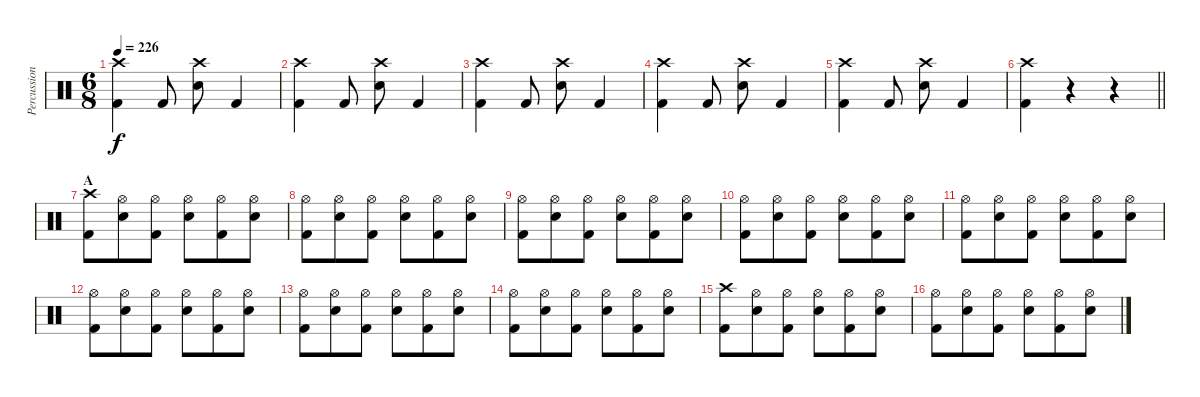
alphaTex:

\track ("Percussion" "Percussion") {instrument percussion}
\staff {score}
\articulation defaults
\ts (6 8)
\tempo 226
\clef neutral
\ks c
("Crash high (hit)" "Kick (hit) 2").4{dy f} "Kick (hit) 2".8 ("Crash high (hit)" "Electric Snare (hit)").8 "Kick (hit) 2".4 |
("Crash high (hit)" "Kick (hit) 2").4 "Kick (hit) 2".8 ("Crash high (hit)" "Electric Snare (hit)").8 "Kick (hit) 2".4 |
("Crash high (hit)" "Kick (hit) 2").4 "Kick (hit) 2".8 ("Crash high (hit)" "Electric Snare (hit)").8 "Kick (hit) 2".4 |
("Crash high (hit)" "Kick (hit) 2").4 "Kick (hit) 2".8 ("Crash high (hit)" "Electric Snare (hit)").8 "Kick (hit) 2".4 |
("Crash high (hit)" "Kick (hit) 2").4 "Kick (hit) 2".8 ("Crash high (hit)" "Electric Snare (hit)").8 "Kick (hit) 2".4 |
\barLineRight lightlight
("Crash high (hit)" "Kick (hit) 2").4 r.4 r.4 |
\section ("" "A")
("Crash high (hit)" "Kick (hit) 2").8 ("Hi-Hat (open)" "Electric Snare (hit)").8 ("Hi-Hat (open)" "Kick (hit) 2").8 ("Hi-Hat (open)" "Electric Snare (hit)").8 ("Hi-Hat (open)" "Kick (hit) 2").8 ("Hi-Hat (open)" "Electric Snare (hit)").8 |
("Hi-Hat (open)" "Kick (hit) 2").8 ("Hi-Hat (open)" "Electric Snare (hit)").8 ("Hi-Hat (open)" "Kick (hit) 2").8 ("Hi-Hat (open)" "Electric Snare (hit)").8 ("Hi-Hat (open)" "Kick (hit) 2").8 ("Hi-Hat (open)" "Electric Snare (hit)").8 |
("Hi-Hat (open)" "Kick (hit) 2").8 ("Hi-Hat (open)" "Electric Snare (hit)").8 ("Hi-Hat (open)" "Kick (hit) 2").8 ("Hi-Hat (open)" "Electric Snare (hit)").8 ("Hi-Hat (open)" "Kick (hit) 2").8 ("Hi-Hat (open)" "Electric Snare (hit)").8 |
("Hi-Hat (open)" "Kick (hit) 2").8 ("Hi-Hat (open)" "Electric Snare (hit)").8 ("Hi-Hat (open)" "Kick (hit) 2").8 ("Hi-Hat (open)" "Electric Snare (hit)").8 ("Hi-Hat (open)" "Kick (hit) 2").8 ("Hi-Hat (open)" "Electric Snare (hit)").8 |
("Hi-Hat (open)" "Kick (hit) 2").8 ("Hi-Hat (open)" "Electric Snare (hit)").8 ("Hi-Hat (open)" "Kick (hit) 2").8 ("Hi-Hat (open)" "Electric Snare (hit)").8 ("Hi-Hat (open)" "Kick (hit) 2").8 ("Hi-Hat (open)" "Electric Snare (hit)").8 |
("Hi-Hat (open)" "Kick (hit) 2").8 ("Hi-Hat (open)" "Electric Snare (hit)").8 ("Hi-Hat (open)" "Kick (hit) 2").8 ("Hi-Hat (open)" "Electric Snare (hit)").8 ("Hi-Hat (open)" "Kick (hit) 2").8 ("Hi-Hat (open)" "Electric Snare (hit)").8 |
("Hi-Hat (open)" "Kick (hit) 2").8 ("Hi-Hat (open)" "Electric Snare (hit)").8 ("Hi-Hat (open)" "Kick (hit) 2").8 ("Hi-Hat (open)" "Electric Snare (hit)").8 ("Hi-Hat (open)" "Kick (hit) 2").8 ("Hi-Hat (open)" "Electric Snare (hit)").8 |
("Hi-Hat (open)" "Kick (hit) 2").8 ("Hi-Hat (open)" "Electric Snare (hit)").8 ("Hi-Hat (open)" "Kick (hit) 2").8 ("Hi-Hat (open)" "Electric Snare (hit)").8 ("Hi-Hat (open)" "Kick (hit) 2").8 ("Hi-Hat (open)" "Electric Snare (hit)").8 |
("Crash high (hit)" "Kick (hit) 2").8 ("Hi-Hat (open)" "Electric Snare (hit)").8 ("Hi-Hat (open)" "Kick (hit) 2").8 ("Hi-Hat (open)" "Electric Snare (hit)").8 ("Hi-Hat (open)" "Kick (hit) 2").8 ("Hi-Hat (open)" "Electric Snare (hit)").8 |
("Hi-Hat (open)" "Kick (hit) 2").8 ("Hi-Hat (open)" "Electric Snare (hit)").8 ("Hi-Hat (open)" "Kick (hit) 2").8 ("Hi-Hat (open)" "Electric Snare (hit)").8 ("Hi-Hat (open)" "Kick (hit) 2").8 ("Hi-Hat (open)" "Electric Snare (hit)").8
